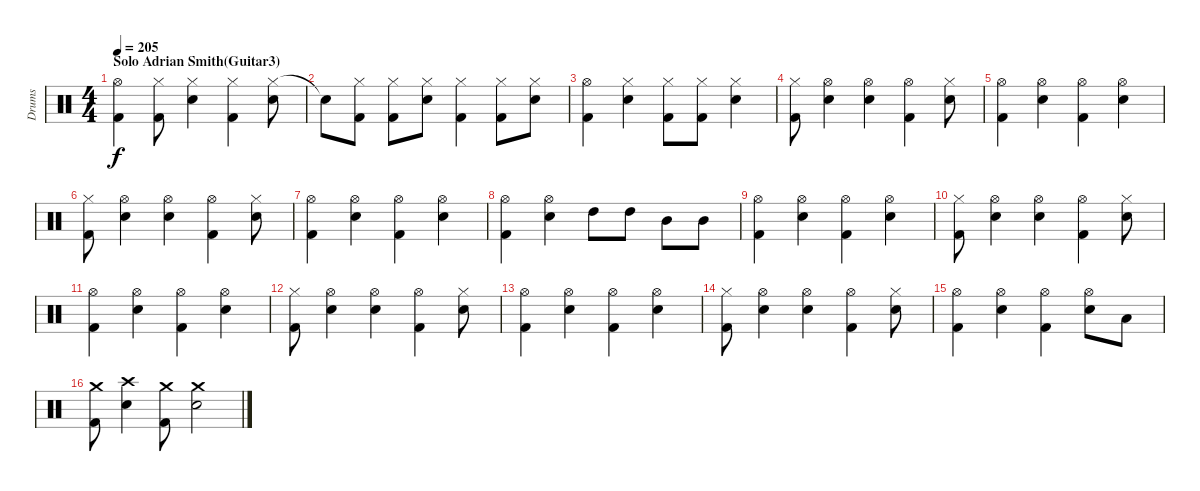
\track ("Drums" "Drums") {instrument percussion}
\staff {score}
\articulation defaults
\ts (4 4)
\section ("" "Solo Adrian Smith(Guitar3)")
\tempo 205
\clef neutral
\ks c
("Hi-Hat (open)" "Kick (hit) 2").4{dy f} ("Hi-Hat (closed)" "Kick (hit) 2").8 ("Hi-Hat (closed)" "Electric Snare (hit)").4 ("Hi-Hat (closed)" "Kick (hit) 2").4 ("Hi-Hat (closed)" "Electric Snare (hit)").8 |
"Snare (hit)"{t}.8 ("Hi-Hat (closed)" "Kick (hit) 2").8 ("Hi-Hat (closed)" "Kick (hit) 2").8 ("Electric Snare (hit)" "Hi-Hat (closed)").8 ("Hi-Hat (closed)" "Kick (hit) 2").4 ("Hi-Hat (closed)" "Kick (hit) 2").8 ("Hi-Hat (closed)" "Electric Snare (hit)").8 |
("Hi-Hat (open)" "Kick (hit) 2").4 ("Hi-Hat (closed)" "Electric Snare (hit)").4 ("Hi-Hat (closed)" "Kick (hit) 2").8 ("Hi-Hat (closed)" "Kick (hit) 2").8 ("Hi-Hat (closed)" "Electric Snare (hit)").4 |
("Hi-Hat (closed)" "Kick (hit) 2").8 ("Hi-Hat (open)" "Electric Snare (hit)").4 ("Hi-Hat (open)" "Electric Snare (hit)").4 ("Hi-Hat (open)" "Kick (hit) 2").4 ("Hi-Hat (closed)" "Electric Snare (hit)").8 |
("Hi-Hat (open)" "Kick (hit) 2").4 ("Hi-Hat (open)" "Electric Snare (hit)").4 ("Hi-Hat (open)" "Kick (hit) 2").4 ("Hi-Hat (open)" "Electric Snare (hit)").4 |
("Hi-Hat (closed)" "Kick (hit) 2").8 ("Hi-Hat (open)" "Electric Snare (hit)").4 ("Hi-Hat (open)" "Electric Snare (hit)").4 ("Hi-Hat (open)" "Kick (hit) 2").4 ("Hi-Hat (closed)" "Electric Snare (hit)").8 |
("Hi-Hat (open)" "Kick (hit) 2").4 ("Hi-Hat (open)" "Electric Snare (hit)").4 ("Hi-Hat (open)" "Kick (hit) 2").4 ("Hi-Hat (open)" "Electric Snare (hit)").4 |
("Hi-Hat (open)" "Kick (hit) 2").4 ("Electric Snare (hit)" "Hi-Hat (open)").4 "High Tom (hit)".8 "High Tom (hit)".8 "Mid Tom (hit)".8 "Mid Tom (hit)".8 |
("Hi-Hat (open)" "Kick (hit) 2").4 ("Hi-Hat (open)" "Electric Snare (hit)").4 ("Hi-Hat (open)" "Kick (hit) 2").4 ("Hi-Hat (open)" "Electric Snare (hit)").4 |
("Hi-Hat (closed)" "Kick (hit) 2").8 ("Hi-Hat (open)" "Electric Snare (hit)").4 ("Hi-Hat (open)" "Electric Snare (hit)").4 ("Hi-Hat (open)" "Kick (hit) 2").4 ("Hi-Hat (closed)" "Electric Snare (hit)").8 |
("Hi-Hat (open)" "Kick (hit) 2").4 ("Hi-Hat (open)" "Electric Snare (hit)").4 ("Hi-Hat (open)" "Kick (hit) 2").4 ("Hi-Hat (open)" "Electric Snare (hit)").4 |
("Hi-Hat (closed)" "Kick (hit) 2").8 ("Hi-Hat (open)" "Electric Snare (hit)").4 ("Hi-Hat (open)" "Electric Snare (hit)").4 ("Hi-Hat (open)" "Kick (hit) 2").4 ("Hi-Hat (closed)" "Electric Snare (hit)").8 |
("Hi-Hat (open)" "Kick (hit) 2").4 ("Hi-Hat (open)" "Electric Snare (hit)").4 ("Hi-Hat (open)" "Kick (hit) 2").4 ("Hi-Hat (open)" "Electric Snare (hit)").4 |
("Hi-Hat (closed)" "Kick (hit) 2").8 ("Hi-Hat (open)" "Electric Snare (hit)").4 ("Hi-Hat (open)" "Electric Snare (hit)").4 ("Hi-Hat (open)" "Kick (hit) 2").4 ("Hi-Hat (closed)" "Electric Snare (hit)").8 |
("Hi-Hat (open)" "Kick (hit) 2").4 ("Hi-Hat (open)" "Electric Snare (hit)").4 ("Hi-Hat (open)" "Kick (hit) 2").4 ("Hi-Hat (open)" "Electric Snare (hit)").8 "Low Tom (hit)".8 |
("Crash medium (hit)" "Kick (hit) 2").8 ("Crash high (hit)" "Electric Snare (hit)").4 ("Crash medium (hit)" "Kick (hit) 2").8 ("Crash medium (hit)" "Electric Snare (hit)").2
